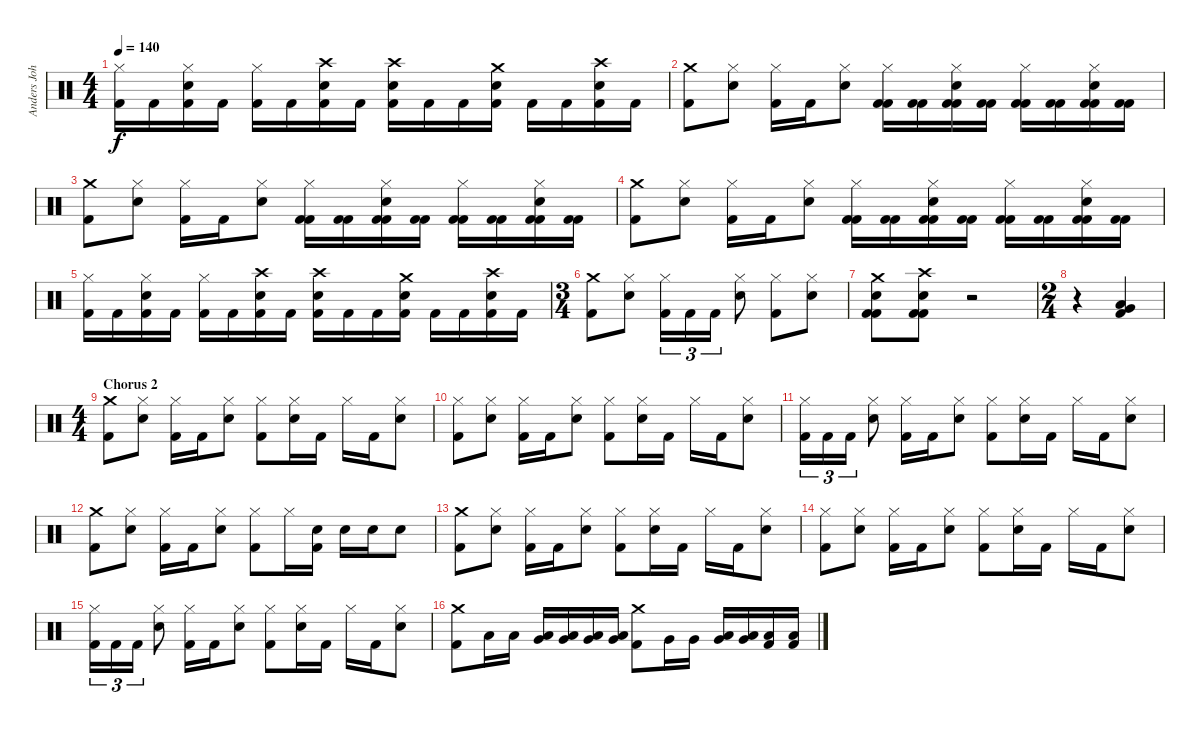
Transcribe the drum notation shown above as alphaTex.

\track ("Anders Johansson :: Drums" "Anders Joh") {instrument percussion}
\staff {score}
\articulation defaults
\ts (4 4)
\tempo 140
\clef neutral
\ks c
("Hi-Hat (closed)" "Kick (hit) 2").16{dy f} "Kick (hit) 2".16 ("Hi-Hat (closed)" "Snare (hit) 2" "Kick (hit) 2").16 "Kick (hit) 2".16 ("Hi-Hat (closed)" "Kick (hit) 2").16 "Kick (hit) 2".16 ("Crash high (hit)" "Snare (hit) 2" "Kick (hit) 2").16 "Kick (hit) 2".16 ("Crash high (hit)" "Snare (hit) 2" "Kick (hit) 2").16 "Kick (hit) 2".16 "Kick (hit) 2".16 ("Crash medium (hit)" "Snare (hit) 2" "Kick (hit) 2").16 "Kick (hit) 2".16 "Kick (hit) 2".16 ("Crash high (hit)" "Snare (hit) 2" "Kick (hit) 2").16 "Kick (hit) 2".16 |
("Crash medium (hit)" "Kick (hit) 2").8 ("Hi-Hat (closed)" "Snare (hit) 2").8 ("Hi-Hat (closed)" "Kick (hit) 2").16 "Kick (hit) 2".16 ("Hi-Hat (closed)" "Snare (hit) 2").8 ("Hi-Hat (closed)" "Kick (hit) 2" "Kick (hit) 2").16 ("Kick (hit) 2" "Kick (hit) 2").16 ("Hi-Hat (closed)" "Snare (hit) 2" "Kick (hit) 2" "Kick (hit) 2").16 ("Kick (hit) 2" "Kick (hit) 2").16 ("Hi-Hat (closed)" "Kick (hit) 2" "Kick (hit) 2").16 ("Kick (hit) 2" "Kick (hit) 2").16 ("Hi-Hat (closed)" "Snare (hit) 2" "Kick (hit) 2" "Kick (hit) 2").16 ("Kick (hit) 2" "Kick (hit) 2").16 |
("Crash medium (hit)" "Kick (hit) 2").8 ("Hi-Hat (closed)" "Snare (hit) 2").8 ("Hi-Hat (closed)" "Kick (hit) 2").16 "Kick (hit) 2".16 ("Hi-Hat (closed)" "Snare (hit) 2").8 ("Hi-Hat (closed)" "Kick (hit) 2" "Kick (hit) 2").16 ("Kick (hit) 2" "Kick (hit) 2").16 ("Hi-Hat (closed)" "Snare (hit) 2" "Kick (hit) 2" "Kick (hit) 2").16 ("Kick (hit) 2" "Kick (hit) 2").16 ("Hi-Hat (closed)" "Kick (hit) 2" "Kick (hit) 2").16 ("Kick (hit) 2" "Kick (hit) 2").16 ("Hi-Hat (closed)" "Snare (hit) 2" "Kick (hit) 2" "Kick (hit) 2").16 ("Kick (hit) 2" "Kick (hit) 2").16 |
("Crash medium (hit)" "Kick (hit) 2").8 ("Hi-Hat (closed)" "Snare (hit) 2").8 ("Hi-Hat (closed)" "Kick (hit) 2").16 "Kick (hit) 2".16 ("Hi-Hat (closed)" "Snare (hit) 2").8 ("Hi-Hat (closed)" "Kick (hit) 2" "Kick (hit) 2").16 ("Kick (hit) 2" "Kick (hit) 2").16 ("Hi-Hat (closed)" "Snare (hit) 2" "Kick (hit) 2" "Kick (hit) 2").16 ("Kick (hit) 2" "Kick (hit) 2").16 ("Hi-Hat (closed)" "Kick (hit) 2" "Kick (hit) 2").16 ("Kick (hit) 2" "Kick (hit) 2").16 ("Hi-Hat (closed)" "Snare (hit) 2" "Kick (hit) 2" "Kick (hit) 2").16 ("Kick (hit) 2" "Kick (hit) 2").16 |
("Hi-Hat (closed)" "Kick (hit) 2").16 "Kick (hit) 2".16 ("Hi-Hat (closed)" "Snare (hit) 2" "Kick (hit) 2").16 "Kick (hit) 2".16 ("Hi-Hat (closed)" "Kick (hit) 2").16 "Kick (hit) 2".16 ("Crash high (hit)" "Snare (hit) 2" "Kick (hit) 2").16 "Kick (hit) 2".16 ("Crash high (hit)" "Snare (hit) 2" "Kick (hit) 2").16 "Kick (hit) 2".16 "Kick (hit) 2".16 ("Crash medium (hit)" "Snare (hit) 2" "Kick (hit) 2").16 "Kick (hit) 2".16 "Kick (hit) 2".16 ("Crash high (hit)" "Snare (hit) 2" "Kick (hit) 2").16 "Kick (hit) 2".16 |
\ts (3 4)
("Crash medium (hit)" "Kick (hit) 2").8 ("Hi-Hat (closed)" "Snare (hit) 2").8 ("Hi-Hat (closed)" "Kick (hit) 2").16{tu (3 2)} "Kick (hit) 2".16{tu (3 2)} "Kick (hit) 2".16{tu (3 2)} ("Hi-Hat (closed)" "Snare (hit) 2").8 ("Hi-Hat (closed)" "Kick (hit) 2").8 ("Hi-Hat (closed)" "Snare (hit) 2").8 |
("Crash medium (hit)" "Snare (hit) 2" "Kick (hit) 2" "Kick (hit) 2").8 ("Crash high (hit)" "Snare (hit) 2" "Kick (hit) 2" "Kick (hit) 2").8 r.2 |
\ts (2 4)
r.4 ("Low Tom (hit)" "Very Low Tom (hit)" "Kick (hit) 2").4 |
\ts (4 4)
\section ("" "Chorus 2")
("Crash medium (hit)" "Kick (hit) 2").8 ("Hi-Hat (closed)" "Snare (hit) 2").8 ("Hi-Hat (closed)" "Kick (hit) 2").16 "Kick (hit) 2".16 ("Hi-Hat (closed)" "Snare (hit) 2").8 ("Hi-Hat (closed)" "Kick (hit) 2").8 ("Hi-Hat (closed)" "Snare (hit) 2").16 "Kick (hit) 2".16 "Hi-Hat (closed)".16 "Kick (hit) 2".16 ("Hi-Hat (closed)" "Snare (hit) 2").8 |
("Hi-Hat (closed)" "Kick (hit) 2").8 ("Hi-Hat (closed)" "Snare (hit) 2").8 ("Hi-Hat (closed)" "Kick (hit) 2").16 "Kick (hit) 2".16 ("Hi-Hat (closed)" "Snare (hit) 2").8 ("Hi-Hat (closed)" "Kick (hit) 2").8 ("Hi-Hat (closed)" "Snare (hit) 2").16 "Kick (hit) 2".16 "Hi-Hat (closed)".16 "Kick (hit) 2".16 ("Hi-Hat (closed)" "Snare (hit) 2").8 |
("Hi-Hat (closed)" "Kick (hit) 2").16{tu (3 2)} "Kick (hit) 2".16{tu (3 2)} "Kick (hit) 2".16{tu (3 2)} ("Hi-Hat (closed)" "Snare (hit) 2").8 ("Hi-Hat (closed)" "Kick (hit) 2").16 "Kick (hit) 2".16 ("Hi-Hat (closed)" "Snare (hit) 2").8 ("Hi-Hat (closed)" "Kick (hit) 2").8 ("Hi-Hat (closed)" "Snare (hit) 2").16 "Kick (hit) 2".16 "Hi-Hat (closed)".16 "Kick (hit) 2".16 ("Hi-Hat (closed)" "Snare (hit) 2").8 |
("Crash medium (hit)" "Kick (hit) 2").8 ("Hi-Hat (closed)" "Snare (hit) 2").8 ("Hi-Hat (closed)" "Kick (hit) 2").16 "Kick (hit) 2".16 ("Hi-Hat (closed)" "Snare (hit) 2").8 ("Hi-Hat (closed)" "Kick (hit) 2").8 "Hi-Hat (closed)".16 ("Snare (hit) 2" "Kick (hit) 2").16 "Snare (hit) 2".16 "Snare (hit) 2".16 "Snare (hit) 2".8 |
("Crash medium (hit)" "Kick (hit) 2").8 ("Hi-Hat (closed)" "Snare (hit) 2").8 ("Hi-Hat (closed)" "Kick (hit) 2").16 "Kick (hit) 2".16 ("Hi-Hat (closed)" "Snare (hit) 2").8 ("Hi-Hat (closed)" "Kick (hit) 2").8 ("Hi-Hat (closed)" "Snare (hit) 2").16 "Kick (hit) 2".16 "Hi-Hat (closed)".16 "Kick (hit) 2".16 ("Hi-Hat (closed)" "Snare (hit) 2").8 |
("Hi-Hat (closed)" "Kick (hit) 2").8 ("Hi-Hat (closed)" "Snare (hit) 2").8 ("Hi-Hat (closed)" "Kick (hit) 2").16 "Kick (hit) 2".16 ("Hi-Hat (closed)" "Snare (hit) 2").8 ("Hi-Hat (closed)" "Kick (hit) 2").8 ("Hi-Hat (closed)" "Snare (hit) 2").16 "Kick (hit) 2".16 "Hi-Hat (closed)".16 "Kick (hit) 2".16 ("Hi-Hat (closed)" "Snare (hit) 2").8 |
("Hi-Hat (closed)" "Kick (hit) 2").16{tu (3 2)} "Kick (hit) 2".16{tu (3 2)} "Kick (hit) 2".16{tu (3 2)} ("Hi-Hat (closed)" "Snare (hit) 2").8 ("Hi-Hat (closed)" "Kick (hit) 2").16 "Kick (hit) 2".16 ("Hi-Hat (closed)" "Snare (hit) 2").8 ("Hi-Hat (closed)" "Kick (hit) 2").8 ("Hi-Hat (closed)" "Snare (hit) 2").16 "Kick (hit) 2".16 "Hi-Hat (closed)".16 "Kick (hit) 2".16 ("Hi-Hat (closed)" "Snare (hit) 2").8 |
("Crash medium (hit)" "Kick (hit) 2").8 "Low Tom (hit)".16 "Low Tom (hit)".16 ("Low Tom (hit)" "Very Low Tom (hit)").16 ("Low Tom (hit)" "Very Low Tom (hit)").16 ("Very Low Tom (hit)" "Low Floor Tom (hit)").16 ("Very Low Tom (hit)" "Low Floor Tom (hit)").16 ("Crash medium (hit)" "Kick (hit) 2").8 "Very Low Tom (hit)".16 "Very Low Tom (hit)".16 ("Very Low Tom (hit)" "Low Floor Tom (hit)").16 ("Very Low Tom (hit)" "Low Floor Tom (hit)").16 ("Low Floor Tom (hit)" "Kick (hit) 2").16 ("Low Floor Tom (hit)" "Kick (hit) 2").16
